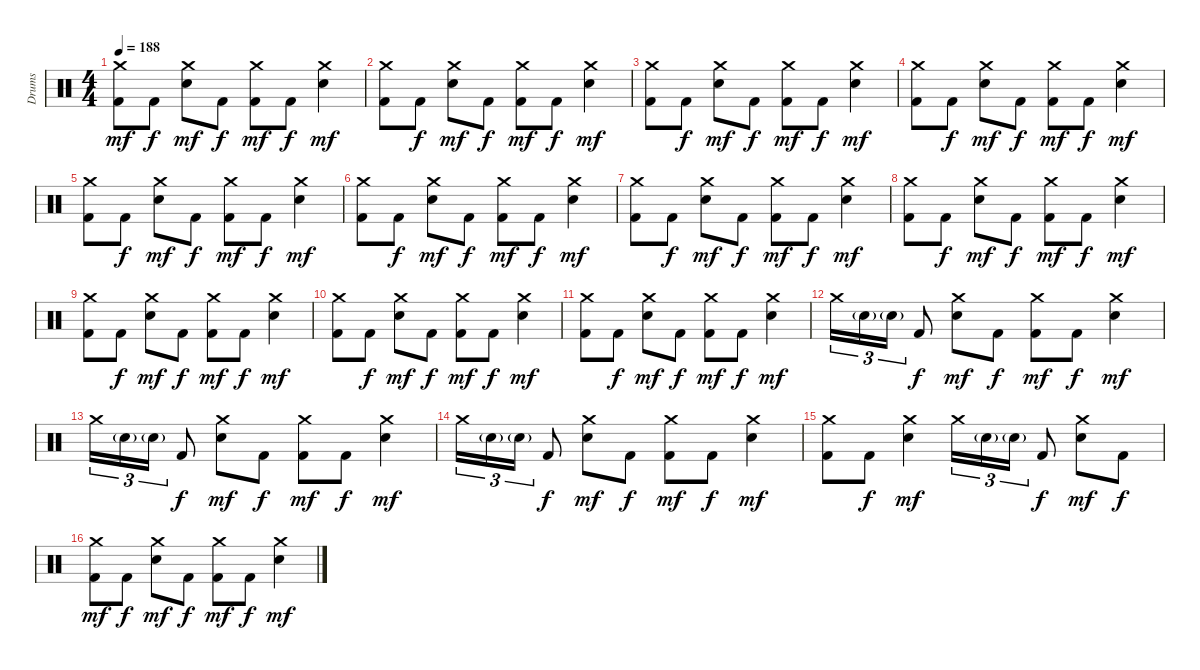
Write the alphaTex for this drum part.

\track ("Drums" "Drums") {instrument percussion}
\staff {score}
\articulation defaults
\ts (4 4)
\tempo 188
\clef neutral
\ks c
("Crash medium (hit)" "Kick (hit) 2").8{dy mf} "Kick (hit) 2".8{dy f} ("Crash medium (hit)" "Electric Snare (hit)").8{dy mf} "Kick (hit) 2".8{dy f} ("Crash medium (hit)" "Kick (hit) 2").8{dy mf} "Kick (hit) 2".8{dy f} ("Crash medium (hit)" "Electric Snare (hit)").4{dy mf} |
("Crash medium (hit)" "Kick (hit) 2").8 "Kick (hit) 2".8{dy f} ("Crash medium (hit)" "Electric Snare (hit)").8{dy mf} "Kick (hit) 2".8{dy f} ("Crash medium (hit)" "Kick (hit) 2").8{dy mf} "Kick (hit) 2".8{dy f} ("Crash medium (hit)" "Electric Snare (hit)").4{dy mf} |
("Crash medium (hit)" "Kick (hit) 2").8 "Kick (hit) 2".8{dy f} ("Crash medium (hit)" "Electric Snare (hit)").8{dy mf} "Kick (hit) 2".8{dy f} ("Crash medium (hit)" "Kick (hit) 2").8{dy mf} "Kick (hit) 2".8{dy f} ("Crash medium (hit)" "Electric Snare (hit)").4{dy mf} |
("Crash medium (hit)" "Kick (hit) 2").8 "Kick (hit) 2".8{dy f} ("Crash medium (hit)" "Electric Snare (hit)").8{dy mf} "Kick (hit) 2".8{dy f} ("Crash medium (hit)" "Kick (hit) 2").8{dy mf} "Kick (hit) 2".8{dy f} ("Crash medium (hit)" "Electric Snare (hit)").4{dy mf} |
("Crash medium (hit)" "Kick (hit) 2").8 "Kick (hit) 2".8{dy f} ("Crash medium (hit)" "Electric Snare (hit)").8{dy mf} "Kick (hit) 2".8{dy f} ("Crash medium (hit)" "Kick (hit) 2").8{dy mf} "Kick (hit) 2".8{dy f} ("Crash medium (hit)" "Electric Snare (hit)").4{dy mf} |
("Crash medium (hit)" "Kick (hit) 2").8 "Kick (hit) 2".8{dy f} ("Crash medium (hit)" "Electric Snare (hit)").8{dy mf} "Kick (hit) 2".8{dy f} ("Crash medium (hit)" "Kick (hit) 2").8{dy mf} "Kick (hit) 2".8{dy f} ("Crash medium (hit)" "Electric Snare (hit)").4{dy mf} |
("Crash medium (hit)" "Kick (hit) 2").8 "Kick (hit) 2".8{dy f} ("Crash medium (hit)" "Electric Snare (hit)").8{dy mf} "Kick (hit) 2".8{dy f} ("Crash medium (hit)" "Kick (hit) 2").8{dy mf} "Kick (hit) 2".8{dy f} ("Crash medium (hit)" "Electric Snare (hit)").4{dy mf} |
("Crash medium (hit)" "Kick (hit) 2").8 "Kick (hit) 2".8{dy f} ("Crash medium (hit)" "Electric Snare (hit)").8{dy mf} "Kick (hit) 2".8{dy f} ("Crash medium (hit)" "Kick (hit) 2").8{dy mf} "Kick (hit) 2".8{dy f} ("Crash medium (hit)" "Electric Snare (hit)").4{dy mf} |
("Crash medium (hit)" "Kick (hit) 2").8 "Kick (hit) 2".8{dy f} ("Crash medium (hit)" "Electric Snare (hit)").8{dy mf} "Kick (hit) 2".8{dy f} ("Crash medium (hit)" "Kick (hit) 2").8{dy mf} "Kick (hit) 2".8{dy f} ("Crash medium (hit)" "Electric Snare (hit)").4{dy mf} |
("Crash medium (hit)" "Kick (hit) 2").8 "Kick (hit) 2".8{dy f} ("Crash medium (hit)" "Electric Snare (hit)").8{dy mf} "Kick (hit) 2".8{dy f} ("Crash medium (hit)" "Kick (hit) 2").8{dy mf} "Kick (hit) 2".8{dy f} ("Crash medium (hit)" "Electric Snare (hit)").4{dy mf} |
("Crash medium (hit)" "Kick (hit) 2").8 "Kick (hit) 2".8{dy f} ("Crash medium (hit)" "Electric Snare (hit)").8{dy mf} "Kick (hit) 2".8{dy f} ("Crash medium (hit)" "Kick (hit) 2").8{dy mf} "Kick (hit) 2".8{dy f} ("Crash medium (hit)" "Electric Snare (hit)").4{dy mf} |
"Crash medium (hit)".16{tu (3 2)} "Electric Snare (hit)"{g}.16{tu (3 2)} "Electric Snare (hit)"{g}.16{tu (3 2)} "Kick (hit) 2".8{dy f} ("Crash medium (hit)" "Electric Snare (hit)").8{dy mf} "Kick (hit) 2".8{dy f} ("Crash medium (hit)" "Kick (hit) 2").8{dy mf} "Kick (hit) 2".8{dy f} ("Crash medium (hit)" "Electric Snare (hit)").4{dy mf} |
"Crash medium (hit)".16{tu (3 2)} "Electric Snare (hit)"{g}.16{tu (3 2)} "Electric Snare (hit)"{g}.16{tu (3 2)} "Kick (hit) 2".8{dy f} ("Crash medium (hit)" "Electric Snare (hit)").8{dy mf} "Kick (hit) 2".8{dy f} ("Crash medium (hit)" "Kick (hit) 2").8{dy mf} "Kick (hit) 2".8{dy f} ("Crash medium (hit)" "Electric Snare (hit)").4{dy mf} |
"Crash medium (hit)".16{tu (3 2)} "Electric Snare (hit)"{g}.16{tu (3 2)} "Electric Snare (hit)"{g}.16{tu (3 2)} "Kick (hit) 2".8{dy f} ("Crash medium (hit)" "Electric Snare (hit)").8{dy mf} "Kick (hit) 2".8{dy f} ("Crash medium (hit)" "Kick (hit) 2").8{dy mf} "Kick (hit) 2".8{dy f} ("Crash medium (hit)" "Electric Snare (hit)").4{dy mf} |
("Crash medium (hit)" "Kick (hit) 2").8 "Kick (hit) 2".8{dy f} ("Crash medium (hit)" "Electric Snare (hit)").4{dy mf} "Crash medium (hit)".16{tu (3 2)} "Electric Snare (hit)"{g}.16{tu (3 2)} "Electric Snare (hit)"{g}.16{tu (3 2)} "Kick (hit) 2".8{dy f} ("Crash medium (hit)" "Electric Snare (hit)").8{dy mf} "Kick (hit) 2".8{dy f} |
("Crash medium (hit)" "Kick (hit) 2").8{dy mf} "Kick (hit) 2".8{dy f} ("Crash medium (hit)" "Electric Snare (hit)").8{dy mf} "Kick (hit) 2".8{dy f} ("Crash medium (hit)" "Kick (hit) 2").8{dy mf} "Kick (hit) 2".8{dy f} ("Crash medium (hit)" "Electric Snare (hit)").4{dy mf}
